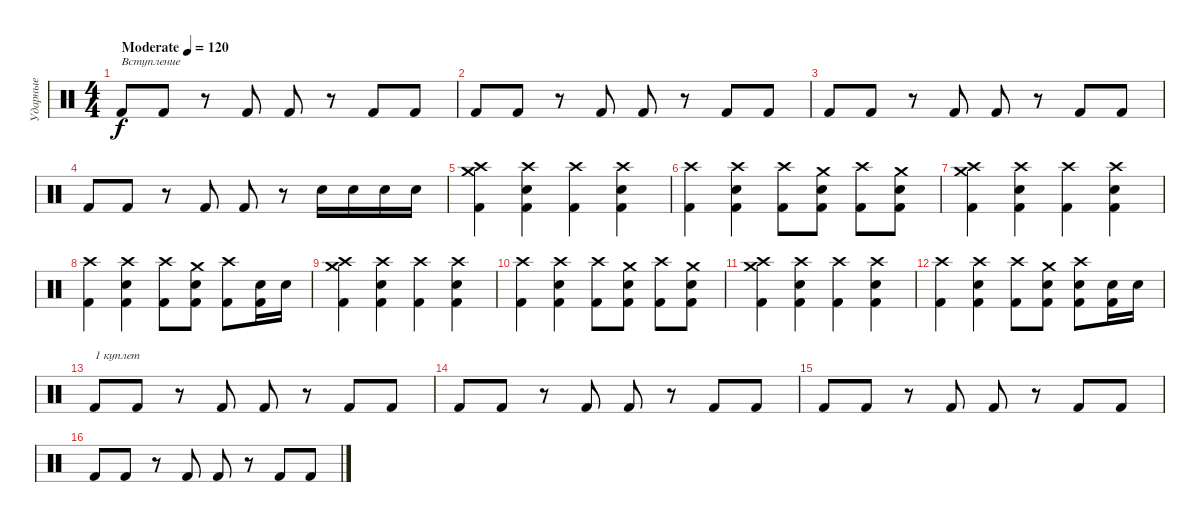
\track ("Ударные" "Ударные") {instrument percussion}
\staff {score}
\articulation defaults
\ts (4 4)
\tempo (120 "Moderate")
\clef neutral
\ks c "Kick (hit) 2".8{txt "Вступление" dy f} "Kick (hit) 2".8
r.8 "Kick (hit) 2".8 "Kick (hit) 2".8 r.8 "Kick (hit) 2".8 "Kick (hit) 2".8 |
"Kick (hit) 2".8 "Kick (hit) 2".8 r.8 "Kick (hit) 2".8 "Kick (hit) 2".8 r.8 "Kick (hit) 2".8 "Kick (hit) 2".8 |
"Kick (hit) 2".8 "Kick (hit) 2".8 r.8 "Kick (hit) 2".8 "Kick (hit) 2".8 r.8 "Kick (hit) 2".8 "Kick (hit) 2".8 |
"Kick (hit) 2".8 "Kick (hit) 2".8 r.8 "Kick (hit) 2".8 "Kick (hit) 2".8 r.8 "Snare (hit) 2".16 "Snare (hit) 2".16 "Snare (hit) 2".16 "Snare (hit) 2".16 |
("Crash medium (hit)" "Crash high (hit)" "Kick (hit) 2").4 ("Crash high (hit)" "Snare (hit) 2" "Kick (hit) 2").4 ("Crash high (hit)" "Kick (hit) 2").4 ("Crash high (hit)" "Snare (hit) 2" "Kick (hit) 2").4 |
("Crash high (hit)" "Kick (hit) 2").4 ("Crash high (hit)" "Snare (hit) 2" "Kick (hit) 2").4 ("Crash high (hit)" "Kick (hit) 2").8 ("Crash medium (hit)" "Snare (hit) 2" "Kick (hit) 2").8 ("Crash high (hit)" "Kick (hit) 2").8 ("Crash medium (hit)" "Snare (hit) 2" "Kick (hit) 2").8 |
("Crash medium (hit)" "Crash high (hit)" "Kick (hit) 2").4 ("Crash high (hit)" "Snare (hit) 2" "Kick (hit) 2").4 ("Crash high (hit)" "Kick (hit) 2").4 ("Crash high (hit)" "Snare (hit) 2" "Kick (hit) 2").4 |
("Crash high (hit)" "Kick (hit) 2").4 ("Crash high (hit)" "Snare (hit) 2" "Kick (hit) 2").4 ("Crash high (hit)" "Kick (hit) 2").8 ("Crash medium (hit)" "Snare (hit) 2" "Kick (hit) 2").8 ("Crash high (hit)" "Kick (hit) 2").8 ("Snare (hit) 2" "Kick (hit) 2").16 "Snare (hit) 2".16 |
("Crash medium (hit)" "Crash high (hit)" "Kick (hit) 2").4 ("Crash high (hit)" "Snare (hit) 2" "Kick (hit) 2").4 ("Crash high (hit)" "Kick (hit) 2").4 ("Crash high (hit)" "Snare (hit) 2" "Kick (hit) 2").4 |
("Crash high (hit)" "Kick (hit) 2").4 ("Crash high (hit)" "Snare (hit) 2" "Kick (hit) 2").4 ("Crash high (hit)" "Kick (hit) 2").8 ("Crash medium (hit)" "Snare (hit) 2" "Kick (hit) 2").8 ("Crash high (hit)" "Kick (hit) 2").8 ("Crash medium (hit)" "Snare (hit) 2" "Kick (hit) 2").8 |
("Crash medium (hit)" "Crash high (hit)" "Kick (hit) 2").4 ("Crash high (hit)" "Snare (hit) 2" "Kick (hit) 2").4 ("Crash high (hit)" "Kick (hit) 2").4 ("Crash high (hit)" "Snare (hit) 2" "Kick (hit) 2").4 |
("Crash high (hit)" "Kick (hit) 2").4 ("Crash high (hit)" "Snare (hit) 2" "Kick (hit) 2").4 ("Crash high (hit)" "Kick (hit) 2").8 ("Crash medium (hit)" "Snare (hit) 2" "Kick (hit) 2").8 ("Crash high (hit)" "Snare (hit) 2" "Kick (hit) 2").8 ("Snare (hit) 2" "Kick (hit) 2").16 "Snare (hit) 2".16 |
"Kick (hit) 2".8{txt "1 куплет"} "Kick (hit) 2".8 r.8 "Kick (hit) 2".8 "Kick (hit) 2".8 r.8 "Kick (hit) 2".8 "Kick (hit) 2".8 |
"Kick (hit) 2".8 "Kick (hit) 2".8 r.8 "Kick (hit) 2".8 "Kick (hit) 2".8 r.8 "Kick (hit) 2".8 "Kick (hit) 2".8 |
"Kick (hit) 2".8 "Kick (hit) 2".8 r.8 "Kick (hit) 2".8 "Kick (hit) 2".8 r.8 "Kick (hit) 2".8 "Kick (hit) 2".8 |
"Kick (hit) 2".8 "Kick (hit) 2".8 r.8 "Kick (hit) 2".8 "Kick (hit) 2".8 r.8 "Kick (hit) 2".8 "Kick (hit) 2".8
